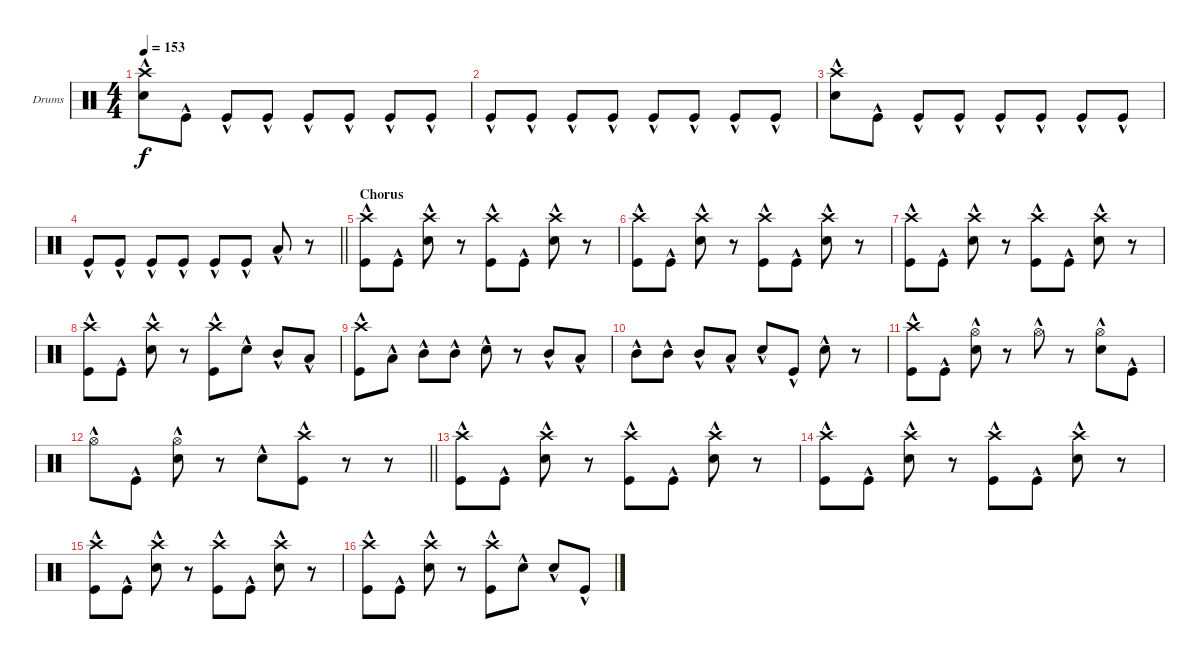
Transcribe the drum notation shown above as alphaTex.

\bracketExtendMode groupsimilarinstruments
\firstSystemTrackNameOrientation horizontal
\otherSystemsTrackNameOrientation horizontal
\track ("Drumkit" "Drums") {solo instrument percussion}
\staff {score}
\articulation defaults
\ts (4 4)
\tempo 153
\clef neutral
\ks c
("Crash high (hit)"{hac} "Snare (hit) 2"{hac}).8{dy f} "Kick (hit)"{hac}.8 "Kick (hit)"{hac}.8 "Kick (hit)"{hac}.8 "Kick (hit)"{hac}.8 "Kick (hit)"{hac}.8 "Kick (hit)"{hac}.8 "Kick (hit)"{hac}.8 |
"Kick (hit)"{hac}.8 "Kick (hit)"{hac}.8 "Kick (hit)"{hac}.8 "Kick (hit)"{hac}.8 "Kick (hit)"{hac}.8 "Kick (hit)"{hac}.8 "Kick (hit)"{hac}.8 "Kick (hit)"{hac}.8 |
("Crash high (hit)"{hac} "Snare (hit) 2"{hac}).8 "Kick (hit)"{hac}.8 "Kick (hit)"{hac}.8 "Kick (hit)"{hac}.8 "Kick (hit)"{hac}.8 "Kick (hit)"{hac}.8 "Kick (hit)"{hac}.8 "Kick (hit)"{hac}.8 |
\barLineRight lightlight "Kick (hit)"{hac}.8 "Kick (hit)"{hac}.8 "Kick (hit)"{hac}.8 "Kick (hit)"{hac}.8 "Kick (hit)"{hac}.8 "Kick (hit)"{hac}.8 "Low Tom (hit)"{hac}.8
r.8 |
\section ("" "Chorus")
("Crash high (hit)"{hac} "Kick (hit)"{hac}).8 "Kick (hit)"{hac}.8 ("Crash high (hit)"{hac} "Snare (hit) 2"{hac}).8 r.8 ("Crash high (hit)"{hac} "Kick (hit)"{hac}).8 "Kick (hit)"{hac}.8 ("Crash high (hit)"{hac} "Snare (hit) 2"{hac}).8 r.8 |
("Crash high (hit)"{hac} "Kick (hit)"{hac}).8 "Kick (hit)"{hac}.8 ("Crash high (hit)"{hac} "Snare (hit) 2"{hac}).8 r.8 ("Crash high (hit)"{hac} "Kick (hit)"{hac}).8 "Kick (hit)"{hac}.8 ("Crash high (hit)"{hac} "Snare (hit) 2"{hac}).8 r.8 |
("Crash high (hit)"{hac} "Kick (hit)"{hac}).8 "Kick (hit)"{hac}.8 ("Crash high (hit)"{hac} "Snare (hit) 2"{hac}).8 r.8 ("Crash high (hit)"{hac} "Kick (hit)"{hac}).8 "Kick (hit)"{hac}.8 ("Crash high (hit)"{hac} "Snare (hit) 2"{hac}).8 r.8 |
("Crash high (hit)"{hac} "Kick (hit)"{hac}).8 "Kick (hit)"{hac}.8 ("Crash high (hit)"{hac} "Snare (hit) 2"{hac}).8 r.8 ("Crash high (hit)"{hac} "Kick (hit)"{hac}).8 "Snare (hit) 2"{hac}.8 "Mid Tom (hit)"{hac}.8 "Low Tom (hit)"{hac}.8 |
("Crash high (hit)"{hac} "Kick (hit)"{hac}).8 "Low Tom (hit)"{hac}.8 "Mid Tom (hit)"{hac}.8 "Mid Tom (hit)"{hac}.8 "Snare (hit) 2"{hac}.8 r.8 "Mid Tom (hit)"{hac}.8 "Low Tom (hit)"{hac}.8 |
"Mid Tom (hit)"{hac}.8 "Mid Tom (hit)"{hac}.8 "Mid Tom (hit)"{hac}.8 "Low Tom (hit)"{hac}.8 "Snare (hit) 2"{hac}.8 "Kick (hit)"{hac}.8 "Snare (hit) 2"{hac}.8 r.8 |
("Crash high (hit)"{hac} "Kick (hit)"{hac}).8 "Kick (hit)"{hac}.8 ("Hi-Hat (open)"{hac} "Snare (hit) 2"{hac}).8 r.8 "Hi-Hat (open)"{hac}.8 r.8 ("Hi-Hat (open)"{hac} "Snare (hit) 2"{hac}).8 "Kick (hit)"{hac}.8 |
\barLineRight lightlight "Hi-Hat (open)"{hac}.8 "Kick (hit)"{hac}.8
("Hi-Hat (open)"{hac} "Snare (hit) 2"{hac}).8 r.8 "Snare (hit) 2"{hac}.8 ("Crash high (hit)"{hac} "Kick (hit)"{hac}).8 r.8 r.8 |
("Crash high (hit)"{hac} "Kick (hit)"{hac}).8 "Kick (hit)"{hac}.8 ("Crash high (hit)"{hac} "Snare (hit) 2"{hac}).8 r.8 ("Crash high (hit)"{hac} "Kick (hit)"{hac}).8 "Kick (hit)"{hac}.8 ("Crash high (hit)"{hac} "Snare (hit) 2"{hac}).8 r.8 |
("Crash high (hit)"{hac} "Kick (hit)"{hac}).8 "Kick (hit)"{hac}.8 ("Crash high (hit)"{hac} "Snare (hit) 2"{hac}).8 r.8 ("Crash high (hit)"{hac} "Kick (hit)"{hac}).8 "Kick (hit)"{hac}.8 ("Crash high (hit)"{hac} "Snare (hit) 2"{hac}).8 r.8 |
("Crash high (hit)"{hac} "Kick (hit)"{hac}).8 "Kick (hit)"{hac}.8 ("Crash high (hit)"{hac} "Snare (hit) 2"{hac}).8 r.8 ("Crash high (hit)"{hac} "Kick (hit)"{hac}).8 "Kick (hit)"{hac}.8 ("Crash high (hit)"{hac} "Snare (hit) 2"{hac}).8 r.8 |
("Crash high (hit)"{hac} "Kick (hit)"{hac}).8 "Kick (hit)"{hac}.8 ("Crash high (hit)"{hac} "Snare (hit) 2"{hac}).8 r.8 ("Crash high (hit)"{hac} "Kick (hit)"{hac}).8 "Snare (hit) 2"{hac}.8 "Snare (hit) 2"{hac}.8 "Kick (hit)"{hac}.8
